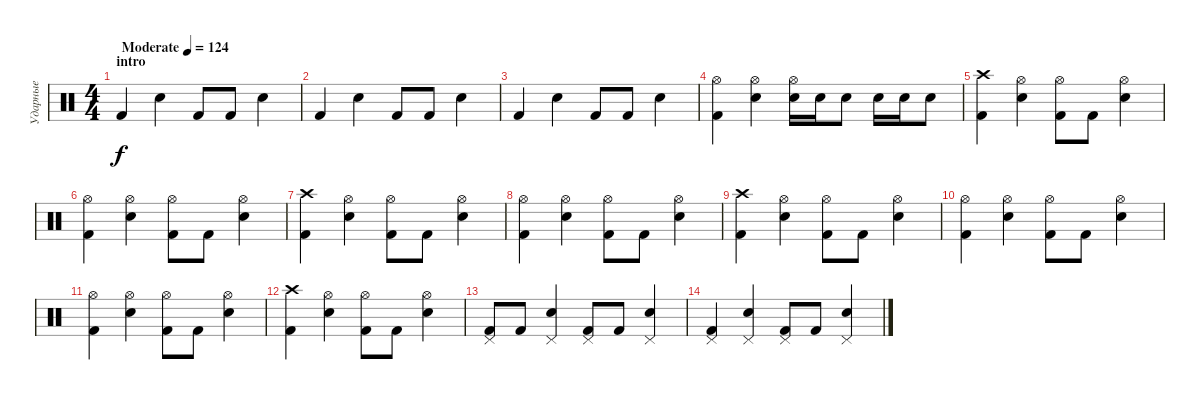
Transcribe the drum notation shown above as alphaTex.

\track ("Ударные" "Ударные") {instrument percussion}
\staff {score}
\articulation defaults
\ts (4 4)
\section ("" "intro")
\tempo (124 "Moderate")
\clef neutral
\ks c "Kick (hit) 2".4{dy f} "Snare (hit) 2".4 "Kick (hit) 2".8 "Kick (hit) 2".8 "Snare (hit) 2".4
|
"Kick (hit) 2".4 "Snare (hit) 2".4 "Kick (hit) 2".8 "Kick (hit) 2".8 "Snare (hit) 2".4 |
"Kick (hit) 2".4 "Snare (hit) 2".4 "Kick (hit) 2".8 "Kick (hit) 2".8 "Snare (hit) 2".4 |
("Hi-Hat (open)" "Kick (hit) 2").4 ("Hi-Hat (open)" "Snare (hit) 2").4 ("Hi-Hat (open)" "Snare (hit) 2").16 "Snare (hit) 2".16 "Snare (hit) 2".8 "Snare (hit) 2".16 "Snare (hit) 2".16 "Snare (hit) 2".8 |
("Crash high (hit)" "Kick (hit) 2").4 ("Hi-Hat (open)" "Snare (hit) 2").4 ("Hi-Hat (open)" "Kick (hit) 2").8 "Kick (hit) 2".8 ("Hi-Hat (open)" "Snare (hit) 2").4 |
("Hi-Hat (open)" "Kick (hit) 2").4 ("Hi-Hat (open)" "Snare (hit) 2").4 ("Hi-Hat (open)" "Kick (hit) 2").8 "Kick (hit) 2".8 ("Hi-Hat (open)" "Snare (hit) 2").4 |
("Crash high (hit)" "Kick (hit) 2").4 ("Hi-Hat (open)" "Snare (hit) 2").4 ("Hi-Hat (open)" "Kick (hit) 2").8 "Kick (hit) 2".8 ("Hi-Hat (open)" "Snare (hit) 2").4 |
("Hi-Hat (open)" "Kick (hit) 2").4 ("Hi-Hat (open)" "Snare (hit) 2").4 ("Hi-Hat (open)" "Kick (hit) 2").8 "Kick (hit) 2".8 ("Hi-Hat (open)" "Snare (hit) 2").4 |
("Crash high (hit)" "Kick (hit) 2").4 ("Hi-Hat (open)" "Snare (hit) 2").4 ("Hi-Hat (open)" "Kick (hit) 2").8 "Kick (hit) 2".8 ("Hi-Hat (open)" "Snare (hit) 2").4 |
("Hi-Hat (open)" "Kick (hit) 2").4 ("Hi-Hat (open)" "Snare (hit) 2").4 ("Hi-Hat (open)" "Kick (hit) 2").8 "Kick (hit) 2".8 ("Hi-Hat (open)" "Snare (hit) 2").4 |
("Hi-Hat (open)" "Kick (hit) 2").4 ("Hi-Hat (open)" "Snare (hit) 2").4 ("Hi-Hat (open)" "Kick (hit) 2").8 "Kick (hit) 2".8 ("Hi-Hat (open)" "Snare (hit) 2").4 |
("Crash high (hit)" "Kick (hit) 2").4 ("Hi-Hat (open)" "Snare (hit) 2").4 ("Hi-Hat (open)" "Kick (hit) 2").8 "Kick (hit) 2".8 ("Hi-Hat (open)" "Snare (hit) 2").4 |
("Pedal Hi-Hat (hit)" "Kick (hit) 2").8 "Kick (hit) 2".8 ("Pedal Hi-Hat (hit)" "Snare (hit) 2").4 ("Pedal Hi-Hat (hit)" "Kick (hit) 2").8 "Kick (hit) 2".8 ("Pedal Hi-Hat (hit)" "Snare (hit) 2").4 |
("Pedal Hi-Hat (hit)" "Kick (hit) 2").4 ("Pedal Hi-Hat (hit)" "Snare (hit) 2").4 ("Pedal Hi-Hat (hit)" "Kick (hit) 2").8 "Kick (hit) 2".8 ("Pedal Hi-Hat (hit)" "Snare (hit) 2").4
